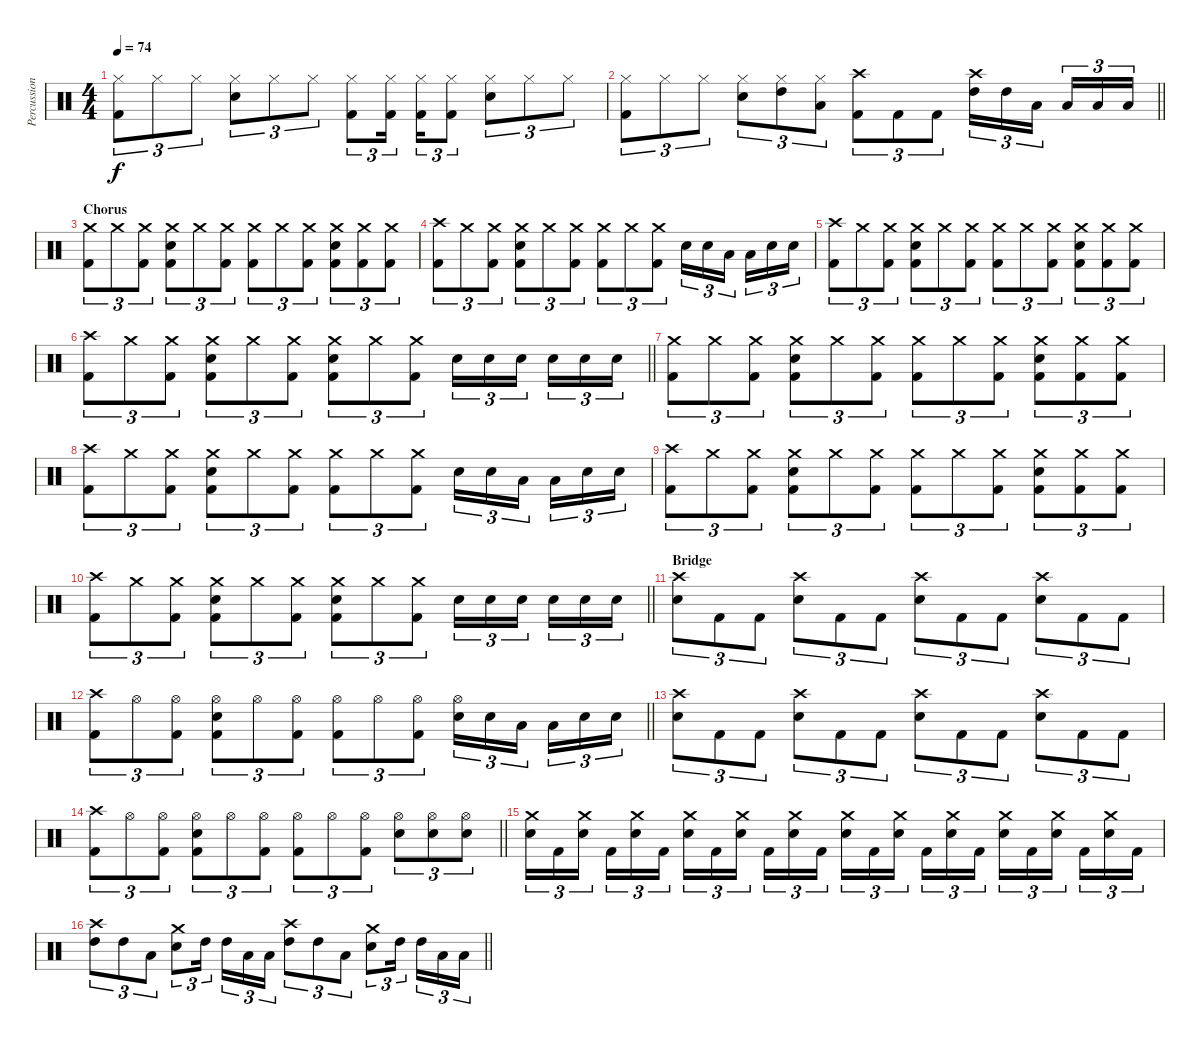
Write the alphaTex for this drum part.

\track ("Percussioni" "Percussion") {instrument percussion}
\staff {score}
\articulation defaults
\ts (4 4)
\tempo 74
\clef neutral
\ks c
("Hi-Hat (closed)" "Kick (hit) 2").8{tu (3 2) dy f} "Hi-Hat (closed)".8{tu (3 2)} "Hi-Hat (closed)".8{tu (3 2)} ("Hi-Hat (closed)" "Snare (hit) 2").8{tu (3 2)} "Hi-Hat (closed)".8{tu (3 2)} "Hi-Hat (closed)".8{tu (3 2)} ("Hi-Hat (closed)" "Kick (hit) 2").8{tu (3 2)} ("Hi-Hat (closed)" "Kick (hit) 2").16{tu (3 2) beam splitsecondary} ("Hi-Hat (closed)" "Kick (hit) 2").16{tu (3 2)} ("Hi-Hat (closed)" "Kick (hit) 2").8{tu (3 2)} ("Hi-Hat (closed)" "Snare (hit) 2").8{tu (3 2)} "Hi-Hat (closed)".8{tu (3 2)} "Hi-Hat (closed)".8{tu (3 2)} |
\barLineRight lightlight
("Hi-Hat (closed)" "Kick (hit) 2").8{tu (3 2)} "Hi-Hat (closed)".8{tu (3 2)} "Hi-Hat (closed)".8{tu (3 2)} ("Hi-Hat (closed)" "Snare (hit) 2").8{tu (3 2)} ("Hi-Hat (closed)" "High Tom (hit)").8{tu (3 2)} ("Hi-Hat (closed)" "Low Tom (hit)").8{tu (3 2)} ("Crash high (hit)" "Kick (hit) 2").8{tu (3 2)} "Kick (hit) 2".8{tu (3 2)} "Kick (hit) 2".8{tu (3 2)} ("Crash high (hit)" "High Tom (hit)").16{tu (3 2)} "High Tom (hit)".16{tu (3 2)} "Low Tom (hit)".16{tu (3 2) beam splitsecondary} "Low Tom (hit)".16{tu (3 2)} "Low Floor Tom (hit)".16{tu (3 2)} "Low Floor Tom (hit)".16{tu (3 2)} |
\section ("" "Chorus")
("Crash medium (hit)" "Kick (hit) 2").8{tu (3 2)} "Crash medium (hit)".8{tu (3 2)} ("Crash medium (hit)" "Kick (hit) 2").8{tu (3 2)} ("Crash medium (hit)" "Snare (hit) 2" "Kick (hit) 2").8{tu (3 2)} "Crash medium (hit)".8{tu (3 2)} ("Crash medium (hit)" "Kick (hit) 2").8{tu (3 2)} ("Crash medium (hit)" "Kick (hit) 2").8{tu (3 2)} "Crash medium (hit)".8{tu (3 2)} ("Crash medium (hit)" "Kick (hit) 2").8{tu (3 2)} ("Crash medium (hit)" "Snare (hit) 2" "Kick (hit) 2").8{tu (3 2)} ("Crash medium (hit)" "Kick (hit) 2").8{tu (3 2)} ("Crash medium (hit)" "Kick (hit) 2").8{tu (3 2)} |
("Crash high (hit)" "Kick (hit) 2").8{tu (3 2)} "Crash medium (hit)".8{tu (3 2)} ("Crash medium (hit)" "Kick (hit) 2").8{tu (3 2)} ("Crash medium (hit)" "Snare (hit) 2" "Kick (hit) 2").8{tu (3 2)} "Crash medium (hit)".8{tu (3 2)} ("Crash medium (hit)" "Kick (hit) 2").8{tu (3 2)} ("Crash medium (hit)" "Kick (hit) 2").8{tu (3 2)} "Crash medium (hit)".8{tu (3 2)} ("Crash medium (hit)" "Kick (hit) 2").8{tu (3 2)} "Snare (hit) 2".16{tu (3 2)} "Snare (hit) 2".16{tu (3 2)} "Low Tom (hit)".16{tu (3 2) beam splitsecondary} "Low Tom (hit)".16{tu (3 2)} "Snare (hit) 2".16{tu (3 2)} "Snare (hit) 2".16{tu (3 2)} |
("Crash high (hit)" "Kick (hit) 2").8{tu (3 2)} "Crash medium (hit)".8{tu (3 2)} ("Crash medium (hit)" "Kick (hit) 2").8{tu (3 2)} ("Crash medium (hit)" "Snare (hit) 2" "Kick (hit) 2").8{tu (3 2)} "Crash medium (hit)".8{tu (3 2)} ("Crash medium (hit)" "Kick (hit) 2").8{tu (3 2)} ("Crash medium (hit)" "Kick (hit) 2").8{tu (3 2)} "Crash medium (hit)".8{tu (3 2)} ("Crash medium (hit)" "Kick (hit) 2").8{tu (3 2)} ("Crash medium (hit)" "Snare (hit) 2" "Kick (hit) 2").8{tu (3 2)} ("Crash medium (hit)" "Kick (hit) 2").8{tu (3 2)} ("Crash medium (hit)" "Kick (hit) 2").8{tu (3 2)} |
\barLineRight lightlight
("Crash high (hit)" "Kick (hit) 2").8{tu (3 2)} "Crash medium (hit)".8{tu (3 2)} ("Crash medium (hit)" "Kick (hit) 2").8{tu (3 2)} ("Crash medium (hit)" "Snare (hit) 2" "Kick (hit) 2").8{tu (3 2)} "Crash medium (hit)".8{tu (3 2)} ("Crash medium (hit)" "Kick (hit) 2").8{tu (3 2)} ("Crash medium (hit)" "Snare (hit) 2" "Kick (hit) 2").8{tu (3 2)} "Crash medium (hit)".8{tu (3 2)} ("Crash medium (hit)" "Kick (hit) 2").8{tu (3 2)} "Snare (hit) 2".16{tu (3 2)} "Snare (hit) 2".16{tu (3 2)} "Snare (hit) 2".16{tu (3 2) beam splitsecondary} "Snare (hit) 2".16{tu (3 2)} "Snare (hit) 2".16{tu (3 2)} "Snare (hit) 2".16{tu (3 2)} |
("Crash medium (hit)" "Kick (hit) 2").8{tu (3 2)} "Crash medium (hit)".8{tu (3 2)} ("Crash medium (hit)" "Kick (hit) 2").8{tu (3 2)} ("Crash medium (hit)" "Snare (hit) 2" "Kick (hit) 2").8{tu (3 2)} "Crash medium (hit)".8{tu (3 2)} ("Crash medium (hit)" "Kick (hit) 2").8{tu (3 2)} ("Crash medium (hit)" "Kick (hit) 2").8{tu (3 2)} "Crash medium (hit)".8{tu (3 2)} ("Crash medium (hit)" "Kick (hit) 2").8{tu (3 2)} ("Crash medium (hit)" "Snare (hit) 2" "Kick (hit) 2").8{tu (3 2)} ("Crash medium (hit)" "Kick (hit) 2").8{tu (3 2)} ("Crash medium (hit)" "Kick (hit) 2").8{tu (3 2)} |
("Crash high (hit)" "Kick (hit) 2").8{tu (3 2)} "Crash medium (hit)".8{tu (3 2)} ("Crash medium (hit)" "Kick (hit) 2").8{tu (3 2)} ("Crash medium (hit)" "Snare (hit) 2" "Kick (hit) 2").8{tu (3 2)} "Crash medium (hit)".8{tu (3 2)} ("Crash medium (hit)" "Kick (hit) 2").8{tu (3 2)} ("Crash medium (hit)" "Kick (hit) 2").8{tu (3 2)} "Crash medium (hit)".8{tu (3 2)} ("Crash medium (hit)" "Kick (hit) 2").8{tu (3 2)} "Snare (hit) 2".16{tu (3 2)} "Snare (hit) 2".16{tu (3 2)} "Low Tom (hit)".16{tu (3 2) beam splitsecondary} "Low Tom (hit)".16{tu (3 2)} "Snare (hit) 2".16{tu (3 2)} "Snare (hit) 2".16{tu (3 2)} |
("Crash high (hit)" "Kick (hit) 2").8{tu (3 2)} "Crash medium (hit)".8{tu (3 2)} ("Crash medium (hit)" "Kick (hit) 2").8{tu (3 2)} ("Crash medium (hit)" "Snare (hit) 2" "Kick (hit) 2").8{tu (3 2)} "Crash medium (hit)".8{tu (3 2)} ("Crash medium (hit)" "Kick (hit) 2").8{tu (3 2)} ("Crash medium (hit)" "Kick (hit) 2").8{tu (3 2)} "Crash medium (hit)".8{tu (3 2)} ("Crash medium (hit)" "Kick (hit) 2").8{tu (3 2)} ("Crash medium (hit)" "Snare (hit) 2" "Kick (hit) 2").8{tu (3 2)} ("Crash medium (hit)" "Kick (hit) 2").8{tu (3 2)} ("Crash medium (hit)" "Kick (hit) 2").8{tu (3 2)} |
\barLineRight lightlight
("Crash high (hit)" "Kick (hit) 2").8{tu (3 2)} "Crash medium (hit)".8{tu (3 2)} ("Crash medium (hit)" "Kick (hit) 2").8{tu (3 2)} ("Crash medium (hit)" "Snare (hit) 2" "Kick (hit) 2").8{tu (3 2)} "Crash medium (hit)".8{tu (3 2)} ("Crash medium (hit)" "Kick (hit) 2").8{tu (3 2)} ("Crash medium (hit)" "Snare (hit) 2" "Kick (hit) 2").8{tu (3 2)} "Crash medium (hit)".8{tu (3 2)} ("Crash medium (hit)" "Kick (hit) 2").8{tu (3 2)} "Snare (hit) 2".16{tu (3 2)} "Snare (hit) 2".16{tu (3 2)} "Snare (hit) 2".16{tu (3 2) beam splitsecondary} "Snare (hit) 2".16{tu (3 2)} "Snare (hit) 2".16{tu (3 2)} "Snare (hit) 2".16{tu (3 2)} |
\section ("" "Bridge")
("Crash high (hit)" "Snare (hit) 2").8{tu (3 2)} "Kick (hit) 2".8{tu (3 2)} "Kick (hit) 2".8{tu (3 2)} ("Crash high (hit)" "Snare (hit) 2").8{tu (3 2)} "Kick (hit) 2".8{tu (3 2)} "Kick (hit) 2".8{tu (3 2)} ("Crash high (hit)" "Snare (hit) 2").8{tu (3 2)} "Kick (hit) 2".8{tu (3 2)} "Kick (hit) 2".8{tu (3 2)} ("Crash high (hit)" "Snare (hit) 2").8{tu (3 2)} "Kick (hit) 2".8{tu (3 2)} "Kick (hit) 2".8{tu (3 2)} |
\barLineRight lightlight
("Crash high (hit)" "Kick (hit) 2").8{tu (3 2)} "Hi-Hat (open)".8{tu (3 2)} ("Hi-Hat (open)" "Kick (hit) 2").8{tu (3 2)} ("Hi-Hat (open)" "Snare (hit) 2" "Kick (hit) 2").8{tu (3 2)} "Hi-Hat (open)".8{tu (3 2)} ("Hi-Hat (open)" "Kick (hit) 2").8{tu (3 2)} ("Hi-Hat (open)" "Kick (hit) 2").8{tu (3 2)} "Hi-Hat (open)".8{tu (3 2)} ("Hi-Hat (open)" "Kick (hit) 2").8{tu (3 2)} ("Hi-Hat (open)" "Snare (hit) 2").16{tu (3 2)} "Snare (hit) 2".16{tu (3 2)} "Low Tom (hit)".16{tu (3 2) beam splitsecondary} "Low Tom (hit)".16{tu (3 2)} "Snare (hit) 2".16{tu (3 2)} "Snare (hit) 2".16{tu (3 2)} |
("Crash high (hit)" "Snare (hit) 2").8{tu (3 2)} "Kick (hit) 2".8{tu (3 2)} "Kick (hit) 2".8{tu (3 2)} ("Crash high (hit)" "Snare (hit) 2").8{tu (3 2)} "Kick (hit) 2".8{tu (3 2)} "Kick (hit) 2".8{tu (3 2)} ("Crash high (hit)" "Snare (hit) 2").8{tu (3 2)} "Kick (hit) 2".8{tu (3 2)} "Kick (hit) 2".8{tu (3 2)} ("Crash high (hit)" "Snare (hit) 2").8{tu (3 2)} "Kick (hit) 2".8{tu (3 2)} "Kick (hit) 2".8{tu (3 2)} |
\barLineRight lightlight
("Crash high (hit)" "Kick (hit) 2").8{tu (3 2)} "Hi-Hat (open)".8{tu (3 2)} ("Hi-Hat (open)" "Kick (hit) 2").8{tu (3 2)} ("Hi-Hat (open)" "Snare (hit) 2" "Kick (hit) 2").8{tu (3 2)} "Hi-Hat (open)".8{tu (3 2)} ("Hi-Hat (open)" "Kick (hit) 2").8{tu (3 2)} ("Hi-Hat (open)" "Kick (hit) 2").8{tu (3 2)} "Hi-Hat (open)".8{tu (3 2)} ("Hi-Hat (open)" "Kick (hit) 2").8{tu (3 2)} ("Hi-Hat (open)" "Snare (hit) 2").8{tu (3 2)} ("Hi-Hat (open)" "Snare (hit) 2").8{tu (3 2)} ("Hi-Hat (open)" "Snare (hit) 2").8{tu (3 2)} |
("Crash medium (hit)" "Snare (hit) 2").16{tu (3 2)} "Kick (hit) 2".16{tu (3 2)} ("Crash medium (hit)" "Snare (hit) 2").16{tu (3 2) beam splitsecondary} "Kick (hit) 2".16{tu (3 2)} ("Crash medium (hit)" "Snare (hit) 2").16{tu (3 2)} "Kick (hit) 2".16{tu (3 2)} ("Crash medium (hit)" "Snare (hit) 2").16{tu (3 2)} "Kick (hit) 2".16{tu (3 2)} ("Crash medium (hit)" "Snare (hit) 2").16{tu (3 2) beam splitsecondary} "Kick (hit) 2".16{tu (3 2)} ("Crash medium (hit)" "Snare (hit) 2").16{tu (3 2)} "Kick (hit) 2".16{tu (3 2)} ("Crash medium (hit)" "Snare (hit) 2").16{tu (3 2)} "Kick (hit) 2".16{tu (3 2)} ("Crash medium (hit)" "Snare (hit) 2").16{tu (3 2) beam splitsecondary} "Kick (hit) 2".16{tu (3 2)} ("Crash medium (hit)" "Snare (hit) 2").16{tu (3 2)} "Kick (hit) 2".16{tu (3 2)} ("Crash medium (hit)" "Snare (hit) 2").16{tu (3 2)} "Kick (hit) 2".16{tu (3 2)} ("Crash medium (hit)" "Snare (hit) 2").16{tu (3 2) beam splitsecondary} "Kick (hit) 2".16{tu (3 2)} ("Crash medium (hit)" "Snare (hit) 2").16{tu (3 2)} "Kick (hit) 2".16{tu (3 2)} |
\barLineRight lightlight
("Crash high (hit)" "High Tom (hit)").8{tu (3 2)} "High Tom (hit)".8{tu (3 2)} "Low Tom (hit)".8{tu (3 2)} ("Crash medium (hit)" "Snare (hit) 2").8{tu (3 2)} "High Tom (hit)".16{tu (3 2) beam splitsecondary} "High Tom (hit)".16{tu (3 2)} "Low Tom (hit)".16{tu (3 2)} "Low Floor Tom (hit)".16{tu (3 2)} ("Crash high (hit)" "High Tom (hit)").8{tu (3 2)} "High Tom (hit)".8{tu (3 2)} "Low Tom (hit)".8{tu (3 2)} ("Crash medium (hit)" "Snare (hit) 2").8{tu (3 2)} "High Tom (hit)".16{tu (3 2) beam splitsecondary} "High Tom (hit)".16{tu (3 2)} "Low Tom (hit)".16{tu (3 2)} "Low Floor Tom (hit)".16{tu (3 2)}
